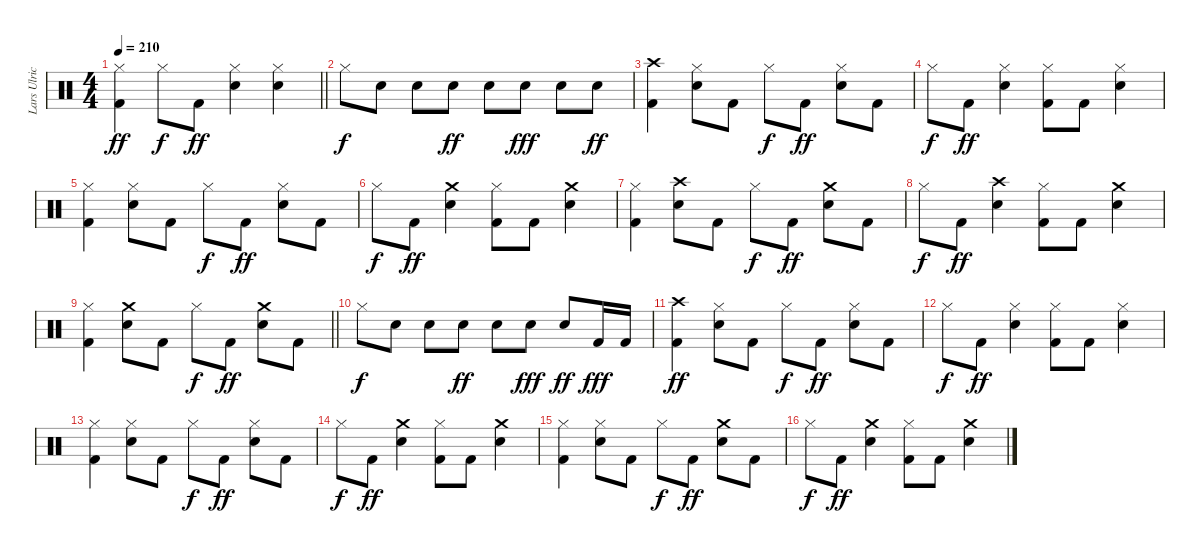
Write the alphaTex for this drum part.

\track ("Lars Ulrich" "Lars Ulric") {instrument percussion}
\staff {score}
\articulation defaults
\ts (4 4)
\tempo 210
\clef neutral
\barLineRight lightlight
\ks c
("Hi-Hat (closed)" "Kick (hit) 2").4{dy ff} "Hi-Hat (closed)".8{dy f} "Kick (hit) 2".8{dy ff} ("Hi-Hat (closed)" "Snare (hit) 2").4 ("Hi-Hat (closed)" "Snare (hit) 2").4 |
"Hi-Hat (closed)".8{dy f} "Snare (hit) 2".8 "Snare (hit) 2".8 "Snare (hit) 2".8{dy ff} "Snare (hit) 2".8 "Snare (hit) 2".8{dy fff} "Snare (hit) 2".8 "Snare (hit) 2".8{dy ff} |
("Crash high (hit)" "Kick (hit) 2").4 ("Hi-Hat (closed)" "Snare (hit) 2").8 "Kick (hit) 2".8 "Hi-Hat (closed)".8{dy f} "Kick (hit) 2".8{dy ff} ("Hi-Hat (closed)" "Snare (hit) 2").8 "Kick (hit) 2".8 |
"Hi-Hat (closed)".8{dy f} "Kick (hit) 2".8{dy ff} ("Hi-Hat (closed)" "Snare (hit) 2").4 ("Hi-Hat (closed)" "Kick (hit) 2").8 "Kick (hit) 2".8 ("Hi-Hat (closed)" "Snare (hit) 2").4 |
("Hi-Hat (closed)" "Kick (hit) 2").4 ("Hi-Hat (closed)" "Snare (hit) 2").8 "Kick (hit) 2".8 "Hi-Hat (closed)".8{dy f} "Kick (hit) 2".8{dy ff} ("Hi-Hat (closed)" "Snare (hit) 2").8 "Kick (hit) 2".8 |
"Hi-Hat (closed)".8{dy f} "Kick (hit) 2".8{dy ff} ("Crash medium (hit)" "Snare (hit) 2").4 ("Hi-Hat (closed)" "Kick (hit) 2").8 "Kick (hit) 2".8 ("Crash medium (hit)" "Snare (hit) 2").4 |
("Hi-Hat (closed)" "Kick (hit) 2").4 ("Crash high (hit)" "Snare (hit) 2").8 "Kick (hit) 2".8 "Hi-Hat (closed)".8{dy f} "Kick (hit) 2".8{dy ff} ("Crash medium (hit)" "Snare (hit) 2").8 "Kick (hit) 2".8 |
"Hi-Hat (closed)".8{dy f} "Kick (hit) 2".8{dy ff} ("Crash high (hit)" "Snare (hit) 2").4 ("Hi-Hat (closed)" "Kick (hit) 2").8 "Kick (hit) 2".8 ("Crash medium (hit)" "Snare (hit) 2").4 |
\barLineRight lightlight
("Hi-Hat (closed)" "Kick (hit) 2").4 ("Crash medium (hit)" "Snare (hit) 2").8 "Kick (hit) 2".8 "Hi-Hat (closed)".8{dy f} "Kick (hit) 2".8{dy ff} ("Crash medium (hit)" "Snare (hit) 2").8 "Kick (hit) 2".8 |
"Hi-Hat (closed)".8{dy f} "Snare (hit) 2".8 "Snare (hit) 2".8 "Snare (hit) 2".8{dy ff} "Snare (hit) 2".8 "Snare (hit) 2".8{dy fff} "Snare (hit) 2".8{dy ff} "Kick (hit) 2".16{dy fff} "Kick (hit) 2".16 |
("Crash high (hit)" "Kick (hit) 2").4{dy ff} ("Hi-Hat (closed)" "Snare (hit) 2").8 "Kick (hit) 2".8 "Hi-Hat (closed)".8{dy f} "Kick (hit) 2".8{dy ff} ("Hi-Hat (closed)" "Snare (hit) 2").8 "Kick (hit) 2".8 |
"Hi-Hat (closed)".8{dy f} "Kick (hit) 2".8{dy ff} ("Hi-Hat (closed)" "Snare (hit) 2").4 ("Hi-Hat (closed)" "Kick (hit) 2").8 "Kick (hit) 2".8 ("Hi-Hat (closed)" "Snare (hit) 2").4 |
("Hi-Hat (closed)" "Kick (hit) 2").4 ("Hi-Hat (closed)" "Snare (hit) 2").8 "Kick (hit) 2".8 "Hi-Hat (closed)".8{dy f} "Kick (hit) 2".8{dy ff} ("Hi-Hat (closed)" "Snare (hit) 2").8 "Kick (hit) 2".8 |
"Hi-Hat (closed)".8{dy f} "Kick (hit) 2".8{dy ff} ("Crash medium (hit)" "Snare (hit) 2").4 ("Hi-Hat (closed)" "Kick (hit) 2").8 "Kick (hit) 2".8 ("Crash medium (hit)" "Snare (hit) 2").4 |
("Hi-Hat (closed)" "Kick (hit) 2").4 ("Hi-Hat (closed)" "Snare (hit) 2").8 "Kick (hit) 2".8 "Hi-Hat (closed)".8{dy f} "Kick (hit) 2".8{dy ff} ("Crash medium (hit)" "Snare (hit) 2").8 "Kick (hit) 2".8 |
"Hi-Hat (closed)".8{dy f} "Kick (hit) 2".8{dy ff} ("Crash medium (hit)" "Snare (hit) 2").4 ("Hi-Hat (closed)" "Kick (hit) 2").8 "Kick (hit) 2".8 ("Crash medium (hit)" "Snare (hit) 2").4
